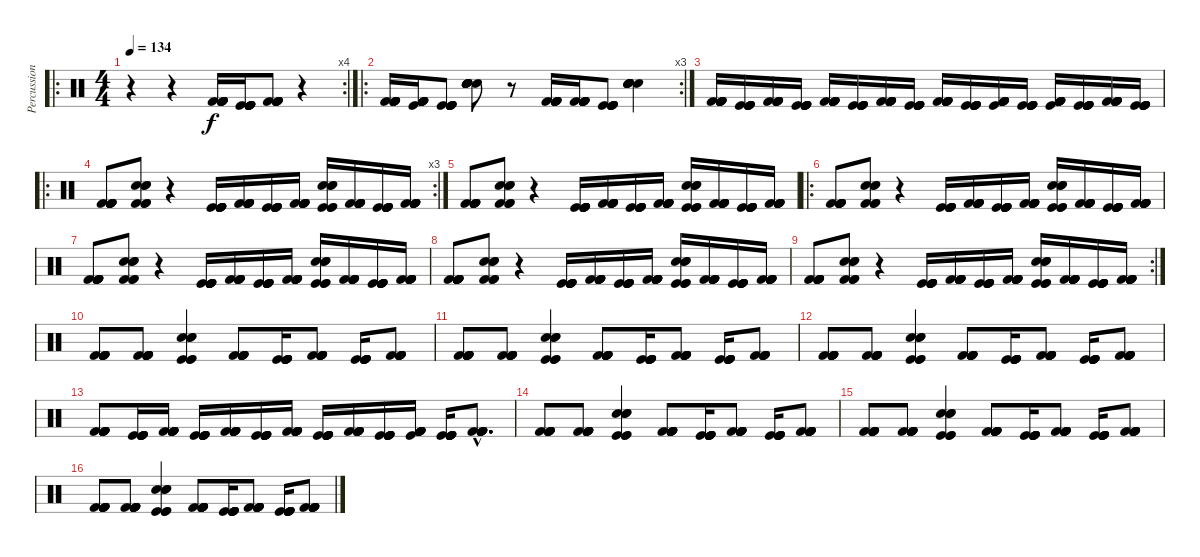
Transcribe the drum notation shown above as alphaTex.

\track ("Percussion" "Percussion") {instrument percussion}
\staff {score}
\articulation defaults
\ro
\rc 4
\ts (4 4)
\tempo 134
\clef neutral
\ks c
r.4{dy f} r.4 ("Kick (hit) 2" "Kick (hit) 2" "Kick (hit) 2" "Kick (hit) 2" "Kick (hit) 2" "Kick (hit) 2").16 ("Kick (hit)" "Kick (hit)" "Kick (hit)" "Kick (hit)" "Kick (hit)" "Kick (hit)").16 ("Kick (hit) 2" "Kick (hit) 2" "Kick (hit) 2" "Kick (hit) 2" "Kick (hit) 2" "Kick (hit) 2").8 r.4 |
\ro
\rc 3
("Kick (hit) 2" "Kick (hit) 2" "Kick (hit) 2" "Kick (hit) 2" "Kick (hit) 2" "Kick (hit) 2").16 ("Kick (hit) 2" "Kick (hit) 2" "Kick (hit)" "Kick (hit) 2" "Kick (hit) 2" "Kick (hit) 2").16 ("Kick (hit)" "Kick (hit)" "Kick (hit)" "Kick (hit)" "Kick (hit)" "Kick (hit)").8 ("Electric Snare (hit)" "Electric Snare (hit)" "Electric Snare (hit)" "Electric Snare (hit)" "Electric Snare (hit)" "Electric Snare (hit)").8 r.8 ("Kick (hit) 2" "Kick (hit) 2" "Kick (hit) 2" "Kick (hit) 2" "Kick (hit) 2" "Kick (hit) 2").16 ("Kick (hit) 2" "Kick (hit) 2" "Kick (hit) 2" "Kick (hit) 2" "Kick (hit) 2" "Kick (hit) 2").16 ("Kick (hit)" "Kick (hit)" "Kick (hit)" "Kick (hit)" "Kick (hit)" "Kick (hit)").8 ("Electric Snare (hit)" "Electric Snare (hit)" "Electric Snare (hit)" "Electric Snare (hit)" "Electric Snare (hit)" "Electric Snare (hit)").4 |
("Kick (hit) 2" "Kick (hit) 2" "Kick (hit) 2" "Kick (hit) 2" "Kick (hit) 2" "Kick (hit) 2").16 ("Kick (hit)" "Kick (hit)" "Kick (hit)" "Kick (hit)" "Kick (hit)" "Kick (hit)").16 ("Kick (hit) 2" "Kick (hit) 2" "Kick (hit) 2" "Kick (hit) 2" "Kick (hit) 2" "Kick (hit) 2").16 ("Kick (hit)" "Kick (hit)" "Kick (hit)" "Kick (hit)" "Kick (hit)" "Kick (hit)").16 ("Kick (hit) 2" "Kick (hit) 2" "Kick (hit) 2" "Kick (hit) 2" "Kick (hit) 2" "Kick (hit) 2").16 ("Kick (hit)" "Kick (hit)" "Kick (hit)" "Kick (hit)" "Kick (hit)" "Kick (hit)").16 ("Kick (hit) 2" "Kick (hit) 2" "Kick (hit) 2" "Kick (hit) 2" "Kick (hit) 2" "Kick (hit) 2").16 ("Kick (hit)" "Kick (hit)" "Kick (hit)" "Kick (hit)" "Kick (hit)" "Kick (hit)").16 ("Kick (hit) 2" "Kick (hit) 2" "Kick (hit) 2" "Kick (hit) 2" "Kick (hit) 2" "Kick (hit) 2").16 ("Kick (hit)" "Kick (hit)" "Kick (hit)" "Kick (hit)" "Kick (hit)" "Kick (hit)").16 ("Kick (hit)" "Kick (hit) 2" "Kick (hit) 2" "Kick (hit) 2" "Kick (hit) 2" "Kick (hit) 2").16 ("Kick (hit)" "Kick (hit)" "Kick (hit)" "Kick (hit)" "Kick (hit)" "Kick (hit)").16 ("Kick (hit)" "Kick (hit) 2" "Kick (hit) 2" "Kick (hit) 2" "Kick (hit) 2" "Kick (hit) 2").16 ("Kick (hit)" "Kick (hit)" "Kick (hit)" "Kick (hit)" "Kick (hit)" "Kick (hit)").16 ("Kick (hit) 2" "Kick (hit) 2" "Kick (hit) 2" "Kick (hit) 2" "Kick (hit) 2" "Kick (hit) 2").16 ("Kick (hit)" "Kick (hit)" "Kick (hit)" "Kick (hit)" "Kick (hit)" "Kick (hit)").16 |
\ro
\rc 3
("Kick (hit) 2" "Kick (hit) 2" "Kick (hit) 2" "Kick (hit) 2" "Kick (hit) 2" "Kick (hit) 2").8 ("Kick (hit) 2" "Kick (hit) 2" "Kick (hit) 2" "Electric Snare (hit)" "Electric Snare (hit)" "Electric Snare (hit)").8 r.4 ("Kick (hit)" "Kick (hit)" "Kick (hit)" "Kick (hit)" "Kick (hit)" "Kick (hit)").16 ("Kick (hit) 2" "Kick (hit) 2" "Kick (hit) 2" "Kick (hit) 2" "Kick (hit) 2" "Kick (hit) 2").16 ("Kick (hit)" "Kick (hit)" "Kick (hit)" "Kick (hit)" "Kick (hit)" "Kick (hit)").16 ("Kick (hit) 2" "Kick (hit) 2" "Kick (hit) 2" "Kick (hit) 2" "Kick (hit) 2" "Kick (hit) 2").16 ("Electric Snare (hit)" "Electric Snare (hit)" "Electric Snare (hit)" "Kick (hit)" "Kick (hit)" "Kick (hit)").16 ("Kick (hit) 2" "Kick (hit) 2" "Kick (hit) 2" "Kick (hit) 2" "Kick (hit) 2" "Kick (hit) 2").16 ("Kick (hit)" "Kick (hit)" "Kick (hit)" "Kick (hit)" "Kick (hit)" "Kick (hit)").16 ("Kick (hit) 2" "Kick (hit) 2" "Kick (hit) 2" "Kick (hit) 2" "Kick (hit) 2" "Kick (hit) 2").16 |
("Kick (hit) 2" "Kick (hit) 2" "Kick (hit) 2" "Kick (hit) 2" "Kick (hit) 2" "Kick (hit) 2").8 ("Electric Snare (hit)" "Electric Snare (hit)" "Electric Snare (hit)" "Kick (hit) 2" "Kick (hit) 2" "Kick (hit) 2").8 r.4 ("Kick (hit)" "Kick (hit)" "Kick (hit)" "Kick (hit)" "Kick (hit)" "Kick (hit)").16 ("Kick (hit) 2" "Kick (hit) 2" "Kick (hit) 2" "Kick (hit) 2" "Kick (hit) 2" "Kick (hit) 2").16 ("Kick (hit)" "Kick (hit)" "Kick (hit)" "Kick (hit)" "Kick (hit)" "Kick (hit)").16 ("Kick (hit) 2" "Kick (hit) 2" "Kick (hit) 2" "Kick (hit) 2" "Kick (hit) 2" "Kick (hit) 2").16 ("Electric Snare (hit)" "Electric Snare (hit)" "Electric Snare (hit)" "Kick (hit)" "Kick (hit)" "Kick (hit)").16 ("Kick (hit) 2" "Kick (hit) 2" "Kick (hit) 2" "Kick (hit) 2" "Kick (hit) 2" "Kick (hit) 2").16 ("Kick (hit)" "Kick (hit)" "Kick (hit)" "Kick (hit)" "Kick (hit)" "Kick (hit)").16 ("Kick (hit) 2" "Kick (hit) 2" "Kick (hit) 2" "Kick (hit) 2" "Kick (hit) 2" "Kick (hit) 2").16 |
\ro
("Kick (hit) 2" "Kick (hit) 2" "Kick (hit) 2" "Kick (hit) 2" "Kick (hit) 2" "Kick (hit) 2").8 ("Electric Snare (hit)" "Electric Snare (hit)" "Electric Snare (hit)" "Kick (hit) 2" "Kick (hit) 2" "Kick (hit) 2").8 r.4 ("Kick (hit)" "Kick (hit)" "Kick (hit)" "Kick (hit)" "Kick (hit)" "Kick (hit)").16 ("Kick (hit) 2" "Kick (hit) 2" "Kick (hit) 2" "Kick (hit) 2" "Kick (hit) 2" "Kick (hit) 2").16 ("Kick (hit)" "Kick (hit)" "Kick (hit)" "Kick (hit)" "Kick (hit)" "Kick (hit)").16 ("Kick (hit) 2" "Kick (hit) 2" "Kick (hit) 2" "Kick (hit) 2" "Kick (hit) 2" "Kick (hit) 2").16 ("Electric Snare (hit)" "Electric Snare (hit)" "Electric Snare (hit)" "Kick (hit)" "Kick (hit)" "Kick (hit)").16 ("Kick (hit) 2" "Kick (hit) 2" "Kick (hit) 2" "Kick (hit) 2" "Kick (hit) 2" "Kick (hit) 2").16 ("Kick (hit)" "Kick (hit)" "Kick (hit)" "Kick (hit)" "Kick (hit)" "Kick (hit)").16 ("Kick (hit) 2" "Kick (hit) 2" "Kick (hit) 2" "Kick (hit) 2" "Kick (hit) 2" "Kick (hit) 2").16 |
("Kick (hit) 2" "Kick (hit) 2" "Kick (hit) 2" "Kick (hit) 2" "Kick (hit) 2" "Kick (hit) 2").8 ("Electric Snare (hit)" "Electric Snare (hit)" "Electric Snare (hit)" "Kick (hit) 2" "Kick (hit) 2" "Kick (hit) 2").8 r.4 ("Kick (hit)" "Kick (hit)" "Kick (hit)" "Kick (hit)" "Kick (hit)" "Kick (hit)").16 ("Kick (hit) 2" "Kick (hit) 2" "Kick (hit) 2" "Kick (hit) 2" "Kick (hit) 2" "Kick (hit) 2").16 ("Kick (hit)" "Kick (hit)" "Kick (hit)" "Kick (hit)" "Kick (hit)" "Kick (hit)").16 ("Kick (hit) 2" "Kick (hit) 2" "Kick (hit) 2" "Kick (hit) 2" "Kick (hit) 2" "Kick (hit) 2").16 ("Electric Snare (hit)" "Electric Snare (hit)" "Electric Snare (hit)" "Kick (hit)" "Kick (hit)" "Kick (hit)").16 ("Kick (hit) 2" "Kick (hit) 2" "Kick (hit) 2" "Kick (hit) 2" "Kick (hit) 2" "Kick (hit) 2").16 ("Kick (hit)" "Kick (hit)" "Kick (hit)" "Kick (hit)" "Kick (hit)" "Kick (hit)").16 ("Kick (hit) 2" "Kick (hit) 2" "Kick (hit) 2" "Kick (hit) 2" "Kick (hit) 2" "Kick (hit) 2").16 |
("Kick (hit) 2" "Kick (hit) 2" "Kick (hit) 2" "Kick (hit) 2" "Kick (hit) 2" "Kick (hit) 2").8 ("Electric Snare (hit)" "Electric Snare (hit)" "Electric Snare (hit)" "Kick (hit) 2" "Kick (hit) 2" "Kick (hit) 2").8 r.4 ("Kick (hit)" "Kick (hit)" "Kick (hit)" "Kick (hit)" "Kick (hit)" "Kick (hit)").16 ("Kick (hit) 2" "Kick (hit) 2" "Kick (hit) 2" "Kick (hit) 2" "Kick (hit) 2" "Kick (hit) 2").16 ("Kick (hit)" "Kick (hit)" "Kick (hit)" "Kick (hit)" "Kick (hit)" "Kick (hit)").16 ("Kick (hit) 2" "Kick (hit) 2" "Kick (hit) 2" "Kick (hit) 2" "Kick (hit) 2" "Kick (hit) 2").16 ("Electric Snare (hit)" "Electric Snare (hit)" "Electric Snare (hit)" "Kick (hit)" "Kick (hit)" "Kick (hit)").16 ("Kick (hit) 2" "Kick (hit) 2" "Kick (hit) 2" "Kick (hit) 2" "Kick (hit) 2" "Kick (hit) 2").16 ("Kick (hit)" "Kick (hit)" "Kick (hit)" "Kick (hit)" "Kick (hit)" "Kick (hit)").16 ("Kick (hit) 2" "Kick (hit) 2" "Kick (hit) 2" "Kick (hit) 2" "Kick (hit) 2" "Kick (hit) 2").16 |
\rc 2
("Kick (hit) 2" "Kick (hit) 2" "Kick (hit) 2" "Kick (hit) 2" "Kick (hit) 2" "Kick (hit) 2").8 ("Electric Snare (hit)" "Electric Snare (hit)" "Electric Snare (hit)" "Kick (hit) 2" "Kick (hit) 2" "Kick (hit) 2").8 r.4 ("Kick (hit)" "Kick (hit)" "Kick (hit)" "Kick (hit)" "Kick (hit)" "Kick (hit)").16 ("Kick (hit) 2" "Kick (hit) 2" "Kick (hit) 2" "Kick (hit) 2" "Kick (hit) 2" "Kick (hit) 2").16 ("Kick (hit)" "Kick (hit)" "Kick (hit)" "Kick (hit)" "Kick (hit)" "Kick (hit)").16 ("Kick (hit) 2" "Kick (hit) 2" "Kick (hit) 2" "Kick (hit) 2" "Kick (hit) 2" "Kick (hit) 2").16 ("Electric Snare (hit)" "Electric Snare (hit)" "Electric Snare (hit)" "Kick (hit)" "Kick (hit)" "Kick (hit)").16 ("Kick (hit) 2" "Kick (hit) 2" "Kick (hit) 2" "Kick (hit) 2" "Kick (hit) 2" "Kick (hit) 2").16 ("Kick (hit)" "Kick (hit)" "Kick (hit)" "Kick (hit)" "Kick (hit)" "Kick (hit)").16 ("Kick (hit) 2" "Kick (hit) 2" "Kick (hit) 2" "Kick (hit) 2" "Kick (hit) 2" "Kick (hit) 2").16 |
("Kick (hit) 2" "Kick (hit) 2" "Kick (hit) 2" "Kick (hit) 2" "Kick (hit) 2" "Kick (hit) 2").8 ("Kick (hit) 2" "Kick (hit) 2" "Kick (hit) 2" "Kick (hit) 2" "Kick (hit) 2" "Kick (hit) 2").8 ("Electric Snare (hit)" "Electric Snare (hit)" "Electric Snare (hit)" "Kick (hit)" "Kick (hit)" "Kick (hit)").4 ("Kick (hit) 2" "Kick (hit) 2" "Kick (hit) 2" "Kick (hit) 2" "Kick (hit) 2" "Kick (hit) 2").8 ("Kick (hit)" "Kick (hit)" "Kick (hit)" "Kick (hit)" "Kick (hit)" "Kick (hit)").16 ("Kick (hit) 2" "Kick (hit) 2" "Kick (hit) 2" "Kick (hit) 2" "Kick (hit) 2" "Kick (hit) 2").8 ("Kick (hit)" "Kick (hit)" "Kick (hit)" "Kick (hit)" "Kick (hit)" "Kick (hit)").16 ("Kick (hit) 2" "Kick (hit) 2" "Kick (hit) 2" "Kick (hit) 2" "Kick (hit) 2" "Kick (hit) 2").8 |
("Kick (hit) 2" "Kick (hit) 2" "Kick (hit) 2" "Kick (hit) 2" "Kick (hit) 2" "Kick (hit) 2").8 ("Kick (hit) 2" "Kick (hit) 2" "Kick (hit) 2" "Kick (hit) 2" "Kick (hit) 2" "Kick (hit) 2").8 ("Electric Snare (hit)" "Electric Snare (hit)" "Electric Snare (hit)" "Kick (hit)" "Kick (hit)" "Kick (hit)").4 ("Kick (hit) 2" "Kick (hit) 2" "Kick (hit) 2" "Kick (hit) 2" "Kick (hit) 2" "Kick (hit) 2").8 ("Kick (hit)" "Kick (hit)" "Kick (hit)" "Kick (hit)" "Kick (hit)" "Kick (hit)").16 ("Kick (hit) 2" "Kick (hit) 2" "Kick (hit) 2" "Kick (hit) 2" "Kick (hit) 2" "Kick (hit) 2").8 ("Kick (hit)" "Kick (hit)" "Kick (hit)" "Kick (hit)" "Kick (hit)" "Kick (hit)").16 ("Kick (hit) 2" "Kick (hit) 2" "Kick (hit) 2" "Kick (hit) 2" "Kick (hit) 2" "Kick (hit) 2").8 |
("Kick (hit) 2" "Kick (hit) 2" "Kick (hit) 2" "Kick (hit) 2" "Kick (hit) 2" "Kick (hit) 2").8 ("Kick (hit) 2" "Kick (hit) 2" "Kick (hit) 2" "Kick (hit) 2" "Kick (hit) 2" "Kick (hit) 2").8 ("Electric Snare (hit)" "Electric Snare (hit)" "Electric Snare (hit)" "Kick (hit)" "Kick (hit)" "Kick (hit)").4 ("Kick (hit) 2" "Kick (hit) 2" "Kick (hit) 2" "Kick (hit) 2" "Kick (hit) 2" "Kick (hit) 2").8 ("Kick (hit)" "Kick (hit)" "Kick (hit)" "Kick (hit)" "Kick (hit)" "Kick (hit)").16 ("Kick (hit) 2" "Kick (hit) 2" "Kick (hit) 2" "Kick (hit) 2" "Kick (hit) 2" "Kick (hit) 2").8 ("Kick (hit)" "Kick (hit)" "Kick (hit)" "Kick (hit)" "Kick (hit)" "Kick (hit)").16 ("Kick (hit) 2" "Kick (hit) 2" "Kick (hit) 2" "Kick (hit) 2" "Kick (hit) 2" "Kick (hit) 2").8 |
("Kick (hit) 2" "Kick (hit) 2" "Kick (hit) 2" "Kick (hit) 2" "Kick (hit) 2" "Kick (hit) 2").8 ("Kick (hit)" "Kick (hit)" "Kick (hit)" "Kick (hit)" "Kick (hit)" "Kick (hit)").16 ("Kick (hit) 2" "Kick (hit) 2" "Kick (hit) 2" "Kick (hit) 2" "Kick (hit) 2" "Kick (hit) 2").16 ("Kick (hit)" "Kick (hit)" "Kick (hit)" "Kick (hit)" "Kick (hit)" "Kick (hit)").16 ("Kick (hit) 2" "Kick (hit) 2" "Kick (hit) 2" "Kick (hit) 2" "Kick (hit) 2" "Kick (hit) 2").16 ("Kick (hit)" "Kick (hit)" "Kick (hit)" "Kick (hit)" "Kick (hit)" "Kick (hit)").16 ("Kick (hit) 2" "Kick (hit) 2" "Kick (hit) 2" "Kick (hit) 2" "Kick (hit) 2" "Kick (hit) 2").16 ("Kick (hit)" "Kick (hit)" "Kick (hit)" "Kick (hit)" "Kick (hit)" "Kick (hit)").16 ("Kick (hit) 2" "Kick (hit) 2" "Kick (hit) 2" "Kick (hit) 2" "Kick (hit) 2" "Kick (hit) 2").16 ("Kick (hit)" "Kick (hit)" "Kick (hit)" "Kick (hit)" "Kick (hit)" "Kick (hit)").16 ("Kick (hit)" "Kick (hit) 2" "Kick (hit) 2" "Kick (hit) 2" "Kick (hit) 2" "Kick (hit) 2").16 ("Kick (hit)" "Kick (hit)" "Kick (hit)" "Kick (hit)" "Kick (hit)" "Kick (hit)").16 ("Kick (hit) 2"{hac} "Kick (hit) 2"{hac} "Kick (hit) 2"{hac} "Kick (hit) 2"{hac} "Kick (hit) 2"{hac} "Kick (hit) 2"{hac}).8{d} |
("Kick (hit) 2" "Kick (hit) 2" "Kick (hit) 2" "Kick (hit) 2" "Kick (hit) 2" "Kick (hit) 2").8 ("Kick (hit) 2" "Kick (hit) 2" "Kick (hit) 2" "Kick (hit) 2" "Kick (hit) 2" "Kick (hit) 2").8 ("Electric Snare (hit)" "Electric Snare (hit)" "Electric Snare (hit)" "Kick (hit)" "Kick (hit)" "Kick (hit)").4 ("Kick (hit) 2" "Kick (hit) 2" "Kick (hit) 2" "Kick (hit) 2" "Kick (hit) 2" "Kick (hit) 2").8 ("Kick (hit)" "Kick (hit)" "Kick (hit)" "Kick (hit)" "Kick (hit)" "Kick (hit)").16 ("Kick (hit) 2" "Kick (hit) 2" "Kick (hit) 2" "Kick (hit) 2" "Kick (hit) 2" "Kick (hit) 2").8 ("Kick (hit)" "Kick (hit)" "Kick (hit)" "Kick (hit)" "Kick (hit)" "Kick (hit)").16 ("Kick (hit) 2" "Kick (hit) 2" "Kick (hit) 2" "Kick (hit) 2" "Kick (hit) 2" "Kick (hit) 2").8 |
("Kick (hit) 2" "Kick (hit) 2" "Kick (hit) 2" "Kick (hit) 2" "Kick (hit) 2" "Kick (hit) 2").8 ("Kick (hit) 2" "Kick (hit) 2" "Kick (hit) 2" "Kick (hit) 2" "Kick (hit) 2" "Kick (hit) 2").8 ("Electric Snare (hit)" "Electric Snare (hit)" "Electric Snare (hit)" "Kick (hit)" "Kick (hit)" "Kick (hit)").4 ("Kick (hit) 2" "Kick (hit) 2" "Kick (hit) 2" "Kick (hit) 2" "Kick (hit) 2" "Kick (hit) 2").8 ("Kick (hit)" "Kick (hit)" "Kick (hit)" "Kick (hit)" "Kick (hit)" "Kick (hit)").16 ("Kick (hit) 2" "Kick (hit) 2" "Kick (hit) 2" "Kick (hit) 2" "Kick (hit) 2" "Kick (hit) 2").8 ("Kick (hit)" "Kick (hit)" "Kick (hit)" "Kick (hit)" "Kick (hit)" "Kick (hit)").16 ("Kick (hit) 2" "Kick (hit) 2" "Kick (hit) 2" "Kick (hit) 2" "Kick (hit) 2" "Kick (hit) 2").8 |
("Kick (hit) 2" "Kick (hit) 2" "Kick (hit) 2" "Kick (hit) 2" "Kick (hit) 2" "Kick (hit) 2").8 ("Kick (hit) 2" "Kick (hit) 2" "Kick (hit) 2" "Kick (hit) 2" "Kick (hit) 2" "Kick (hit) 2").8 ("Electric Snare (hit)" "Electric Snare (hit)" "Electric Snare (hit)" "Kick (hit)" "Kick (hit)" "Kick (hit)").4 ("Kick (hit) 2" "Kick (hit) 2" "Kick (hit) 2" "Kick (hit) 2" "Kick (hit) 2" "Kick (hit) 2").8 ("Kick (hit)" "Kick (hit)" "Kick (hit)" "Kick (hit)" "Kick (hit)" "Kick (hit)").16 ("Kick (hit) 2" "Kick (hit) 2" "Kick (hit) 2" "Kick (hit) 2" "Kick (hit) 2" "Kick (hit) 2").8 ("Kick (hit)" "Kick (hit)" "Kick (hit)" "Kick (hit)" "Kick (hit)" "Kick (hit)").16 ("Kick (hit) 2" "Kick (hit) 2" "Kick (hit) 2" "Kick (hit) 2" "Kick (hit) 2" "Kick (hit) 2").8
